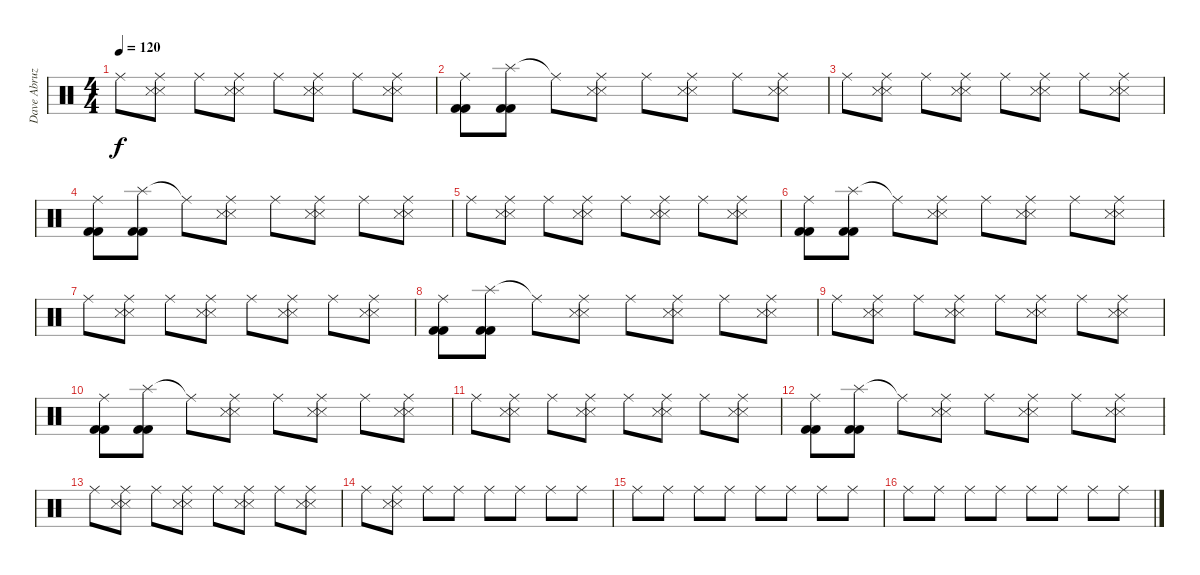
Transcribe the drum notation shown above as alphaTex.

\track ("Dave Abruzzese" "Dave Abruz") {instrument percussion}
\staff {score}
\articulation defaults
\ts (4 4)
\tempo 120
\clef neutral
\ks c "Ride (middle)".8{dy f}
("Ride (middle)" "Snare (side stick) 3" "Snare (side stick) 3").8 "Ride (middle)".8 ("Ride (middle)" "Snare (side stick) 3" "Snare (side stick) 3").8 "Ride (middle)".8 ("Ride (middle)" "Snare (side stick) 3" "Snare (side stick) 3").8 "Ride (middle)".8 ("Ride (middle)" "Snare (side stick) 3" "Snare (side stick) 3").8 |
("Ride (middle)" "Kick (hit) 2" "Kick (hit) 2").8 ("Splash (hit)" "Kick (hit) 2" "Kick (hit) 2").8 "Ride (middle)"{t}.8 ("Ride (middle)" "Snare (side stick) 3" "Snare (side stick) 3").8 "Ride (middle)".8 ("Ride (middle)" "Snare (side stick) 3" "Snare (side stick) 3").8 "Ride (middle)".8 ("Ride (middle)" "Snare (side stick) 3" "Snare (side stick) 3").8 |
"Ride (middle)".8 ("Ride (middle)" "Snare (side stick) 3" "Snare (side stick) 3").8 "Ride (middle)".8 ("Ride (middle)" "Snare (side stick) 3" "Snare (side stick) 3").8 "Ride (middle)".8 ("Ride (middle)" "Snare (side stick) 3" "Snare (side stick) 3").8 "Ride (middle)".8 ("Ride (middle)" "Snare (side stick) 3" "Snare (side stick) 3").8 |
("Ride (middle)" "Kick (hit) 2" "Kick (hit) 2").8 ("Splash (hit)" "Kick (hit) 2" "Kick (hit) 2").8 "Ride (middle)"{t}.8 ("Ride (middle)" "Snare (side stick) 3" "Snare (side stick) 3").8 "Ride (middle)".8 ("Ride (middle)" "Snare (side stick) 3" "Snare (side stick) 3").8 "Ride (middle)".8 ("Ride (middle)" "Snare (side stick) 3" "Snare (side stick) 3").8 |
"Ride (middle)".8 ("Ride (middle)" "Snare (side stick) 3" "Snare (side stick) 3").8 "Ride (middle)".8 ("Ride (middle)" "Snare (side stick) 3" "Snare (side stick) 3").8 "Ride (middle)".8 ("Ride (middle)" "Snare (side stick) 3" "Snare (side stick) 3").8 "Ride (middle)".8 ("Ride (middle)" "Snare (side stick) 3" "Snare (side stick) 3").8 |
("Ride (middle)" "Kick (hit) 2" "Kick (hit) 2").8 ("Splash (hit)" "Kick (hit) 2" "Kick (hit) 2").8 "Ride (middle)"{t}.8 ("Ride (middle)" "Snare (side stick) 3" "Snare (side stick) 3").8 "Ride (middle)".8 ("Ride (middle)" "Snare (side stick) 3" "Snare (side stick) 3").8 "Ride (middle)".8 ("Ride (middle)" "Snare (side stick) 3" "Snare (side stick) 3").8 |
"Ride (middle)".8 ("Ride (middle)" "Snare (side stick) 3" "Snare (side stick) 3").8 "Ride (middle)".8 ("Ride (middle)" "Snare (side stick) 3" "Snare (side stick) 3").8 "Ride (middle)".8 ("Ride (middle)" "Snare (side stick) 3" "Snare (side stick) 3").8 "Ride (middle)".8 ("Ride (middle)" "Snare (side stick) 3" "Snare (side stick) 3").8 |
("Ride (middle)" "Kick (hit) 2" "Kick (hit) 2").8 ("Splash (hit)" "Kick (hit) 2" "Kick (hit) 2").8 "Ride (middle)"{t}.8 ("Ride (middle)" "Snare (side stick) 3" "Snare (side stick) 3").8 "Ride (middle)".8 ("Ride (middle)" "Snare (side stick) 3" "Snare (side stick) 3").8 "Ride (middle)".8 ("Ride (middle)" "Snare (side stick) 3" "Snare (side stick) 3").8 |
"Ride (middle)".8 ("Ride (middle)" "Snare (side stick) 3" "Snare (side stick) 3").8 "Ride (middle)".8 ("Ride (middle)" "Snare (side stick) 3" "Snare (side stick) 3").8 "Ride (middle)".8 ("Ride (middle)" "Snare (side stick) 3" "Snare (side stick) 3").8 "Ride (middle)".8 ("Ride (middle)" "Snare (side stick) 3" "Snare (side stick) 3").8 |
("Ride (middle)" "Kick (hit) 2" "Kick (hit) 2").8 ("Splash (hit)" "Kick (hit) 2" "Kick (hit) 2").8 "Ride (middle)"{t}.8 ("Ride (middle)" "Snare (side stick) 3" "Snare (side stick) 3").8 "Ride (middle)".8 ("Ride (middle)" "Snare (side stick) 3" "Snare (side stick) 3").8 "Ride (middle)".8 ("Ride (middle)" "Snare (side stick) 3" "Snare (side stick) 3").8 |
"Ride (middle)".8 ("Ride (middle)" "Snare (side stick) 3" "Snare (side stick) 3").8 "Ride (middle)".8 ("Ride (middle)" "Snare (side stick) 3" "Snare (side stick) 3").8 "Ride (middle)".8 ("Ride (middle)" "Snare (side stick) 3" "Snare (side stick) 3").8 "Ride (middle)".8 ("Ride (middle)" "Snare (side stick) 3" "Snare (side stick) 3").8 |
("Ride (middle)" "Kick (hit) 2" "Kick (hit) 2").8 ("Splash (hit)" "Kick (hit) 2" "Kick (hit) 2").8 "Ride (middle)"{t}.8 ("Ride (middle)" "Snare (side stick) 3" "Snare (side stick) 3").8 "Ride (middle)".8 ("Ride (middle)" "Snare (side stick) 3" "Snare (side stick) 3").8 "Ride (middle)".8 ("Ride (middle)" "Snare (side stick) 3" "Snare (side stick) 3").8 |
"Ride (middle)".8 ("Ride (middle)" "Snare (side stick) 3" "Snare (side stick) 3").8 "Ride (middle)".8 ("Ride (middle)" "Snare (side stick) 3" "Snare (side stick) 3").8 "Ride (middle)".8 ("Ride (middle)" "Snare (side stick) 3" "Snare (side stick) 3").8 "Ride (middle)".8 ("Ride (middle)" "Snare (side stick) 3" "Snare (side stick) 3").8 |
"Ride (middle)".8 ("Ride (middle)" "Snare (side stick) 3" "Snare (side stick) 3").8 "Ride (middle)".8 "Ride (middle)".8 "Ride (middle)".8 "Ride (middle)".8 "Ride (middle)".8 "Ride (middle)".8 |
"Ride (middle)".8 "Ride (middle)".8 "Ride (middle)".8 "Ride (middle)".8 "Ride (middle)".8 "Ride (middle)".8 "Ride (middle)".8 "Ride (middle)".8 |
"Ride (middle)".8 "Ride (middle)".8 "Ride (middle)".8 "Ride (middle)".8 "Ride (middle)".8 "Ride (middle)".8 "Ride (middle)".8 "Ride (middle)".8
